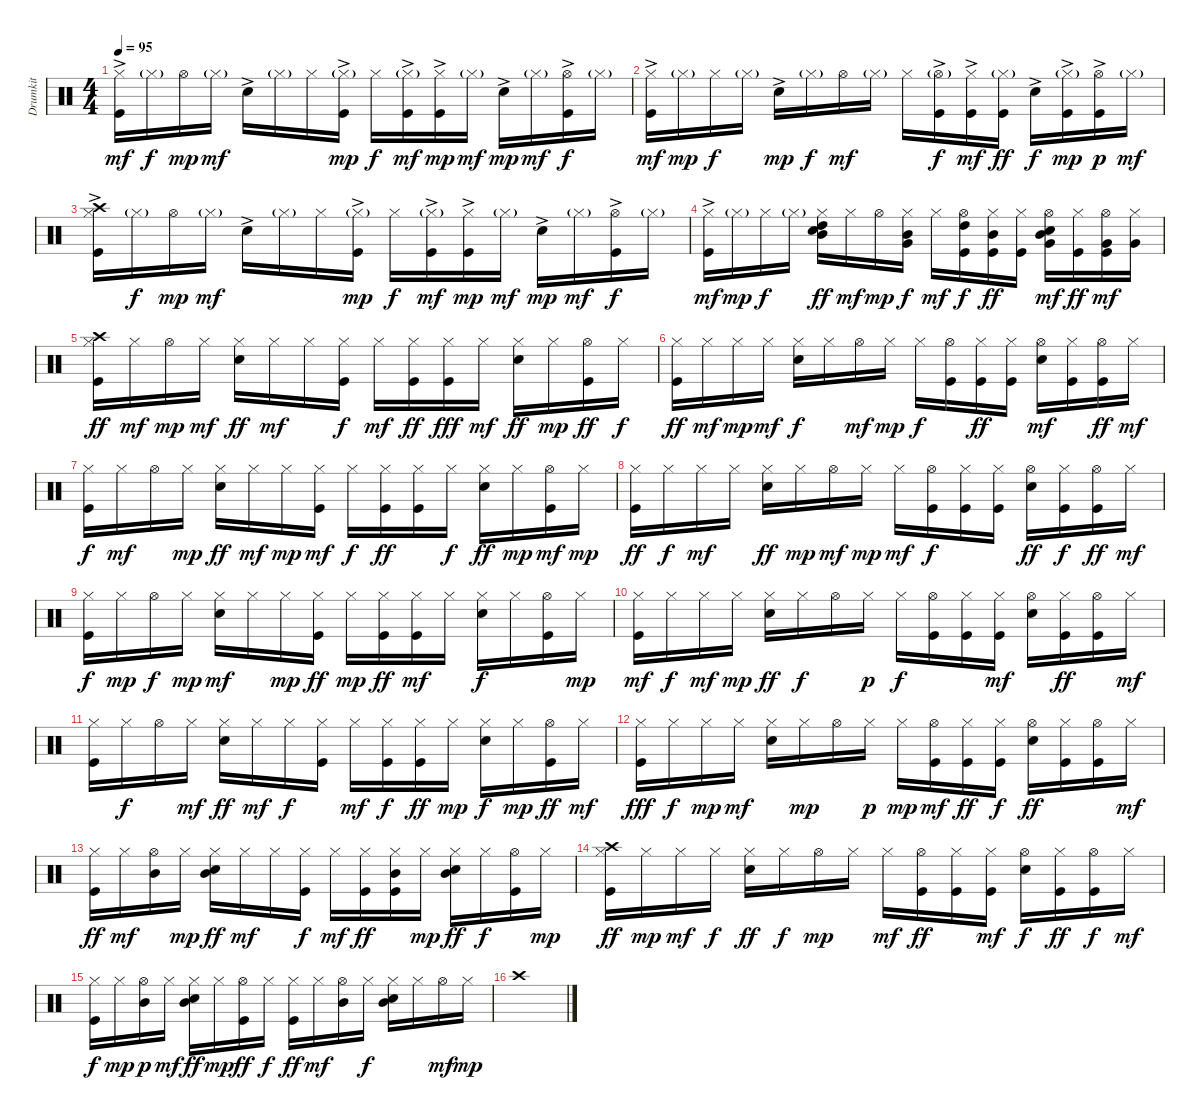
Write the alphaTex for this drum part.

\track ("Drumkit" "Drumkit") {instrument percussion}
\staff {score}
\articulation defaults
\ts (4 4)
\tempo 95
\clef neutral
\ks c
("Kick (hit)"{ac} "Hi-Hat (closed)").16{dy mf} "Hi-Hat (closed)"{g}.16{dy f} "Hi-Hat (open)".16{dy mp} "Hi-Hat (closed)"{g}.16{dy mf} "Snare (hit) 2"{ac}.16 "Hi-Hat (closed)"{g}.16 "Hi-Hat (closed)".16 ("Kick (hit)"{ac} "Hi-Hat (closed)"{g}).16{dy mp} "Hi-Hat (closed)".16{dy f} ("Kick (hit)"{ac} "Hi-Hat (closed)"{g}).16{dy mf} ("Kick (hit)"{ac} "Hi-Hat (closed)").16{dy mp} "Hi-Hat (closed)"{g}.16{dy mf} "Snare (hit) 2"{ac}.16{dy mp} "Hi-Hat (closed)"{g}.16{dy mf} ("Kick (hit)"{ac} "Hi-Hat (open)").16{dy f} "Hi-Hat (closed)"{g}.16 |
("Kick (hit)"{ac} "Hi-Hat (closed)").16{dy mf} "Hi-Hat (closed)"{g}.16{dy mp} "Hi-Hat (closed)".16{dy f} "Hi-Hat (closed)"{g}.16 "Snare (hit) 2"{ac}.16{dy mp} "Hi-Hat (closed)"{g}.16{dy f} "Hi-Hat (open)".16{dy mf} "Hi-Hat (closed)"{g}.16 "Hi-Hat (closed)".16 ("Kick (hit)"{ac} "Hi-Hat (open)"{g}).16{dy f} ("Kick (hit)"{ac} "Hi-Hat (closed)").16{dy mf} ("Kick (hit)" "Hi-Hat (closed)"{g}).16{dy ff} "Snare (hit) 2"{ac}.16{dy f} ("Kick (hit)"{ac} "Hi-Hat (closed)"{g}).16{dy mp} ("Kick (hit)"{ac} "Hi-Hat (open)").16{dy p} "Hi-Hat (closed)"{g}.16{dy mf} |
("Kick (hit)"{ac} "Hi-Hat (closed)" "Crash high (hit)").16 "Hi-Hat (closed)"{g}.16{dy f} "Hi-Hat (open)".16{dy mp} "Hi-Hat (closed)"{g}.16{dy mf} "Snare (hit) 2"{ac}.16 "Hi-Hat (closed)"{g}.16 "Hi-Hat (closed)".16 ("Kick (hit)"{ac} "Hi-Hat (closed)"{g}).16{dy mp} "Hi-Hat (closed)".16{dy f} ("Kick (hit)"{ac} "Hi-Hat (closed)"{g}).16{dy mf} ("Kick (hit)"{ac} "Hi-Hat (closed)").16{dy mp} "Hi-Hat (closed)"{g}.16{dy mf} "Snare (hit) 2"{ac}.16{dy mp} "Hi-Hat (closed)"{g}.16{dy mf} ("Kick (hit)"{ac} "Hi-Hat (open)").16{dy f} "Hi-Hat (closed)"{g}.16 |
("Kick (hit)"{ac} "Hi-Hat (closed)").16{dy mf} "Hi-Hat (closed)"{g}.16{dy mp} "Hi-Hat (closed)".16{dy f} "Hi-Hat (closed)"{g}.16 ("Snare (hit) 2" "Hi-Hat (closed)" "Mid Tom (hit)" "High Tom (hit)").16{dy ff} "Hi-Hat (closed)".16{dy mf} "Hi-Hat (open)".16{dy mp} ("Hi-Hat (closed)" "Very Low Tom (hit)" "Mid Tom (hit)").16{dy f} "Hi-Hat (closed)".16{dy mf} ("Kick (hit)" "Hi-Hat (open)" "High Tom (hit)").16{dy f} ("Kick (hit)" "Hi-Hat (closed)" "Mid Tom (hit)").16{dy ff} ("Kick (hit)" "Hi-Hat (closed)").16 ("Snare (hit) 2" "Very Low Tom (hit)" "Hi-Hat (open)" "Mid Tom (hit)").16{dy mf} ("Kick (hit)" "Hi-Hat (closed)").16{dy ff} ("Kick (hit)" "Very Low Tom (hit)" "Hi-Hat (open)").16{dy mf} ("Hi-Hat (closed)" "Very Low Tom (hit)").16 |
("Kick (hit)" "Hi-Hat (closed)" "Crash high (hit)").16{dy ff} "Hi-Hat (closed)".16{dy mf} "Hi-Hat (open)".16{dy mp} "Hi-Hat (closed)".16{dy mf} ("Snare (hit) 2" "Hi-Hat (closed)").16{dy ff} "Hi-Hat (closed)".16{dy mf} "Hi-Hat (closed)".16 ("Kick (hit)" "Hi-Hat (closed)").16{dy f} "Hi-Hat (closed)".16{dy mf} ("Kick (hit)" "Hi-Hat (closed)").16{dy ff} ("Kick (hit)" "Hi-Hat (closed)").16{dy fff} "Hi-Hat (closed)".16{dy mf} ("Snare (hit) 2" "Hi-Hat (closed)").16{dy ff} "Hi-Hat (closed)".16{dy mp} ("Kick (hit)" "Hi-Hat (open)").16{dy ff} "Hi-Hat (closed)".16{dy f} |
("Kick (hit)" "Hi-Hat (closed)").16{dy ff} "Hi-Hat (closed)".16{dy mf} "Hi-Hat (closed)".16{dy mp} "Hi-Hat (closed)".16{dy mf} ("Snare (hit) 2" "Hi-Hat (closed)").16{dy f} "Hi-Hat (closed)".16 "Hi-Hat (open)".16{dy mf} "Hi-Hat (closed)".16{dy mp} "Hi-Hat (closed)".16{dy f} ("Kick (hit)" "Hi-Hat (open)").16 ("Kick (hit)" "Hi-Hat (closed)").16{dy ff} ("Kick (hit)" "Hi-Hat (closed)").16 ("Snare (hit) 2" "Hi-Hat (open)").16{dy mf} ("Kick (hit)" "Hi-Hat (closed)").16 ("Kick (hit)" "Hi-Hat (open)").16{dy ff} "Hi-Hat (closed)".16{dy mf} |
("Kick (hit)" "Hi-Hat (closed)").16{dy f} "Hi-Hat (closed)".16{dy mf} "Hi-Hat (open)".16 "Hi-Hat (closed)".16{dy mp} ("Snare (hit) 2" "Hi-Hat (closed)").16{dy ff} "Hi-Hat (closed)".16{dy mf} "Hi-Hat (closed)".16{dy mp} ("Kick (hit)" "Hi-Hat (closed)").16{dy mf} "Hi-Hat (closed)".16{dy f} ("Kick (hit)" "Hi-Hat (closed)").16{dy ff} ("Kick (hit)" "Hi-Hat (closed)").16 "Hi-Hat (closed)".16{dy f} ("Snare (hit) 2" "Hi-Hat (closed)").16{dy ff} "Hi-Hat (closed)".16{dy mp} ("Kick (hit)" "Hi-Hat (open)").16{dy mf} "Hi-Hat (closed)".16{dy mp} |
("Kick (hit)" "Hi-Hat (closed)").16{dy ff} "Hi-Hat (closed)".16{dy f} "Hi-Hat (closed)".16{dy mf} "Hi-Hat (closed)".16 ("Snare (hit) 2" "Hi-Hat (closed)").16{dy ff} "Hi-Hat (closed)".16{dy mp} "Hi-Hat (open)".16{dy mf} "Hi-Hat (closed)".16{dy mp} "Hi-Hat (closed)".16{dy mf} ("Kick (hit)" "Hi-Hat (open)").16{dy f} ("Kick (hit)" "Hi-Hat (closed)").16 ("Kick (hit)" "Hi-Hat (closed)").16 ("Snare (hit) 2" "Hi-Hat (open)").16{dy ff} ("Kick (hit)" "Hi-Hat (closed)").16{dy f} ("Kick (hit)" "Hi-Hat (open)").16{dy ff} "Hi-Hat (closed)".16{dy mf} |
("Kick (hit)" "Hi-Hat (closed)").16{dy f} "Hi-Hat (closed)".16{dy mp} "Hi-Hat (open)".16{dy f} "Hi-Hat (closed)".16{dy mp} ("Snare (hit) 2" "Hi-Hat (closed)").16{dy mf} "Hi-Hat (closed)".16 "Hi-Hat (closed)".16{dy mp} ("Kick (hit)" "Hi-Hat (closed)").16{dy ff} "Hi-Hat (closed)".16{dy mp} ("Kick (hit)" "Hi-Hat (closed)").16{dy ff} ("Kick (hit)" "Hi-Hat (closed)").16{dy mf} "Hi-Hat (closed)".16 ("Snare (hit) 2" "Hi-Hat (closed)").16{dy f} "Hi-Hat (closed)".16 ("Kick (hit)" "Hi-Hat (open)").16 "Hi-Hat (closed)".16{dy mp} |
("Kick (hit)" "Hi-Hat (closed)").16{dy mf} "Hi-Hat (closed)".16{dy f} "Hi-Hat (closed)".16{dy mf} "Hi-Hat (closed)".16{dy mp} ("Snare (hit) 2" "Hi-Hat (closed)").16{dy ff} "Hi-Hat (closed)".16{dy f} "Hi-Hat (open)".16 "Hi-Hat (closed)".16{dy p} "Hi-Hat (closed)".16{dy f} ("Kick (hit)" "Hi-Hat (open)").16 ("Kick (hit)" "Hi-Hat (closed)").16 ("Kick (hit)" "Hi-Hat (closed)").16{dy mf} ("Snare (hit) 2" "Hi-Hat (open)").16 ("Kick (hit)" "Hi-Hat (closed)").16{dy ff} ("Kick (hit)" "Hi-Hat (open)").16 "Hi-Hat (closed)".16{dy mf} |
("Kick (hit)" "Hi-Hat (closed)").16 "Hi-Hat (closed)".16{dy f} "Hi-Hat (open)".16 "Hi-Hat (closed)".16{dy mf} ("Snare (hit) 2" "Hi-Hat (closed)").16{dy ff} "Hi-Hat (closed)".16{dy mf} "Hi-Hat (closed)".16{dy f} ("Kick (hit)" "Hi-Hat (closed)").16 "Hi-Hat (closed)".16{dy mf} ("Kick (hit)" "Hi-Hat (closed)").16{dy f} ("Kick (hit)" "Hi-Hat (closed)").16{dy ff} "Hi-Hat (closed)".16{dy mp} ("Snare (hit) 2" "Hi-Hat (closed)").16{dy f} "Hi-Hat (closed)".16{dy mp} ("Kick (hit)" "Hi-Hat (open)").16{dy ff} "Hi-Hat (closed)".16{dy mf} |
("Kick (hit)" "Hi-Hat (closed)").16{dy fff} "Hi-Hat (closed)".16{dy f} "Hi-Hat (closed)".16{dy mp} "Hi-Hat (closed)".16{dy mf} ("Snare (hit) 2" "Hi-Hat (closed)").16 "Hi-Hat (closed)".16{dy mp} "Hi-Hat (open)".16 "Hi-Hat (closed)".16{dy p} "Hi-Hat (closed)".16{dy mp} ("Kick (hit)" "Hi-Hat (open)").16{dy mf} ("Kick (hit)" "Hi-Hat (closed)").16{dy ff} ("Kick (hit)" "Hi-Hat (closed)").16{dy f} ("Snare (hit) 2" "Hi-Hat (open)").16{dy ff} ("Kick (hit)" "Hi-Hat (closed)").16 ("Kick (hit)" "Hi-Hat (open)").16 "Hi-Hat (closed)".16{dy mf} |
("Kick (hit)" "Hi-Hat (closed)").16{dy ff} "Hi-Hat (closed)".16{dy mf} ("Hi-Hat (open)" "Mid Tom (hit)").16 "Hi-Hat (closed)".16{dy mp} ("Snare (hit) 2" "Hi-Hat (closed)" "Mid Tom (hit)").16{dy ff} "Hi-Hat (closed)".16{dy mf} "Hi-Hat (closed)".16 ("Kick (hit)" "Hi-Hat (closed)").16{dy f} "Hi-Hat (closed)".16{dy mf} ("Kick (hit)" "Hi-Hat (closed)").16{dy ff} ("Kick (hit)" "Hi-Hat (closed)" "Mid Tom (hit)").16 "Hi-Hat (closed)".16{dy mp} ("Snare (hit) 2" "Hi-Hat (closed)" "Mid Tom (hit)").16{dy ff} "Hi-Hat (closed)".16{dy f} ("Kick (hit)" "Hi-Hat (open)").16 "Hi-Hat (closed)".16{dy mp} |
("Kick (hit)" "Hi-Hat (closed)" "Crash high (hit)").16{dy ff} "Hi-Hat (closed)".16{dy mp} "Hi-Hat (closed)".16{dy mf} "Hi-Hat (closed)".16{dy f} ("Snare (hit) 2" "Hi-Hat (closed)").16{dy ff} "Hi-Hat (closed)".16{dy f} "Hi-Hat (open)".16{dy mp} "Hi-Hat (closed)".16 "Hi-Hat (closed)".16{dy mf} ("Kick (hit)" "Hi-Hat (open)").16{dy ff} ("Kick (hit)" "Hi-Hat (closed)").16 ("Kick (hit)" "Hi-Hat (closed)").16{dy mf} ("Snare (hit) 2" "Hi-Hat (open)").16{dy f} ("Kick (hit)" "Hi-Hat (closed)").16{dy ff} ("Kick (hit)" "Hi-Hat (open)").16{dy f} "Hi-Hat (closed)".16{dy mf} |
("Kick (hit)" "Hi-Hat (closed)").16{dy f} "Hi-Hat (closed)".16{dy mp} ("Hi-Hat (open)" "Mid Tom (hit)").16{dy p} "Hi-Hat (closed)".16{dy mf} ("Snare (hit) 2" "Hi-Hat (closed)" "Mid Tom (hit)").16{dy ff} "Hi-Hat (closed)".16{dy mp} ("Kick (hit)" "Hi-Hat (open)").16{dy ff} "Hi-Hat (closed)".16{dy f} ("Kick (hit)" "Hi-Hat (closed)").16{dy ff} "Hi-Hat (closed)".16{dy mf} ("Hi-Hat (open)" "Mid Tom (hit)").16 "Hi-Hat (closed)".16{dy f} ("Snare (hit) 2" "Hi-Hat (closed)" "Mid Tom (hit)").16 "Hi-Hat (closed)".16 "Hi-Hat (open)".16{dy mf} "Hi-Hat (closed)".16{dy mp} |
"Crash high (hit)".1
